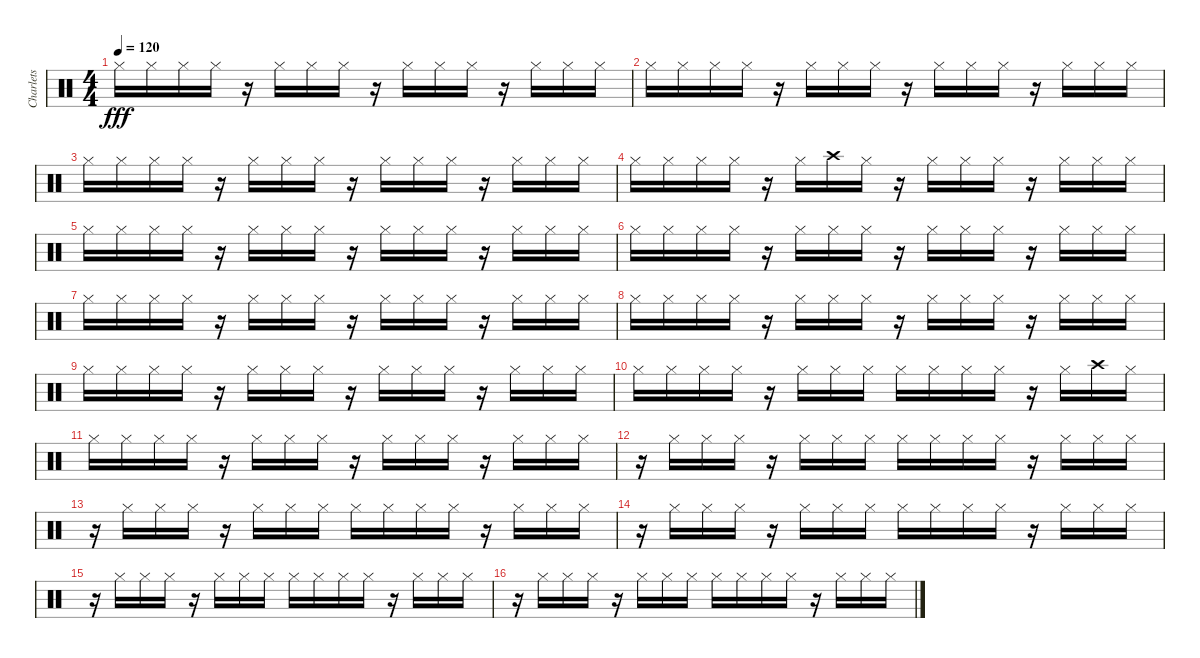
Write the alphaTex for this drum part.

\track ("Charlets" "Charlets") {instrument percussion}
\staff {score}
\articulation defaults
\ts (4 4)
\tempo 120
\clef neutral
\ks c "Hi-Hat (closed)".16{dy fff} "Hi-Hat (closed)".16 "Hi-Hat (closed)".16 "Hi-Hat (closed)".16
r.16 "Hi-Hat (closed)".16 "Hi-Hat (closed)".16 "Hi-Hat (closed)".16 r.16 "Hi-Hat (closed)".16 "Hi-Hat (closed)".16 "Hi-Hat (closed)".16 r.16 "Hi-Hat (closed)".16 "Hi-Hat (closed)".16 "Hi-Hat (closed)".16 |
"Hi-Hat (closed)".16 "Hi-Hat (closed)".16 "Hi-Hat (closed)".16 "Hi-Hat (closed)".16 r.16 "Hi-Hat (closed)".16 "Hi-Hat (closed)".16 "Hi-Hat (closed)".16 r.16 "Hi-Hat (closed)".16 "Hi-Hat (closed)".16 "Hi-Hat (closed)".16 r.16 "Hi-Hat (closed)".16 "Hi-Hat (closed)".16 "Hi-Hat (closed)".16 |
"Hi-Hat (closed)".16 "Hi-Hat (closed)".16 "Hi-Hat (closed)".16 "Hi-Hat (closed)".16 r.16 "Hi-Hat (closed)".16 "Hi-Hat (closed)".16 "Hi-Hat (closed)".16 r.16 "Hi-Hat (closed)".16 "Hi-Hat (closed)".16 "Hi-Hat (closed)".16 r.16 "Hi-Hat (closed)".16 "Hi-Hat (closed)".16 "Hi-Hat (closed)".16 |
"Hi-Hat (closed)".16 "Hi-Hat (closed)".16 "Hi-Hat (closed)".16 "Hi-Hat (closed)".16 r.16 "Hi-Hat (closed)".16 "Crash high (hit)".16 "Hi-Hat (closed)".16 r.16 "Hi-Hat (closed)".16 "Hi-Hat (closed)".16 "Hi-Hat (closed)".16 r.16 "Hi-Hat (closed)".16 "Hi-Hat (closed)".16 "Hi-Hat (closed)".16 |
"Hi-Hat (closed)".16 "Hi-Hat (closed)".16 "Hi-Hat (closed)".16 "Hi-Hat (closed)".16 r.16 "Hi-Hat (closed)".16 "Hi-Hat (closed)".16 "Hi-Hat (closed)".16 r.16 "Hi-Hat (closed)".16 "Hi-Hat (closed)".16 "Hi-Hat (closed)".16 r.16 "Hi-Hat (closed)".16 "Hi-Hat (closed)".16 "Hi-Hat (closed)".16 |
"Hi-Hat (closed)".16 "Hi-Hat (closed)".16 "Hi-Hat (closed)".16 "Hi-Hat (closed)".16 r.16 "Hi-Hat (closed)".16 "Hi-Hat (closed)".16 "Hi-Hat (closed)".16 r.16 "Hi-Hat (closed)".16 "Hi-Hat (closed)".16 "Hi-Hat (closed)".16 r.16 "Hi-Hat (closed)".16 "Hi-Hat (closed)".16 "Hi-Hat (closed)".16 |
"Hi-Hat (closed)".16 "Hi-Hat (closed)".16 "Hi-Hat (closed)".16 "Hi-Hat (closed)".16 r.16 "Hi-Hat (closed)".16 "Hi-Hat (closed)".16 "Hi-Hat (closed)".16 r.16 "Hi-Hat (closed)".16 "Hi-Hat (closed)".16 "Hi-Hat (closed)".16 r.16 "Hi-Hat (closed)".16 "Hi-Hat (closed)".16 "Hi-Hat (closed)".16 |
"Hi-Hat (closed)".16 "Hi-Hat (closed)".16 "Hi-Hat (closed)".16 "Hi-Hat (closed)".16 r.16 "Hi-Hat (closed)".16 "Hi-Hat (closed)".16 "Hi-Hat (closed)".16 r.16 "Hi-Hat (closed)".16 "Hi-Hat (closed)".16 "Hi-Hat (closed)".16 r.16 "Hi-Hat (closed)".16 "Hi-Hat (closed)".16 "Hi-Hat (closed)".16 |
"Hi-Hat (closed)".16 "Hi-Hat (closed)".16 "Hi-Hat (closed)".16 "Hi-Hat (closed)".16 r.16 "Hi-Hat (closed)".16 "Hi-Hat (closed)".16 "Hi-Hat (closed)".16 r.16 "Hi-Hat (closed)".16 "Hi-Hat (closed)".16 "Hi-Hat (closed)".16 r.16 "Hi-Hat (closed)".16 "Hi-Hat (closed)".16 "Hi-Hat (closed)".16 |
"Hi-Hat (closed)".16 "Hi-Hat (closed)".16 "Hi-Hat (closed)".16 "Hi-Hat (closed)".16 r.16 "Hi-Hat (closed)".16 "Hi-Hat (closed)".16 "Hi-Hat (closed)".16 "Hi-Hat (closed)".16 "Hi-Hat (closed)".16 "Hi-Hat (closed)".16 "Hi-Hat (closed)".16 r.16 "Hi-Hat (closed)".16 "Crash high (hit)".16 "Hi-Hat (closed)".16 |
"Hi-Hat (closed)".16 "Hi-Hat (closed)".16 "Hi-Hat (closed)".16 "Hi-Hat (closed)".16 r.16 "Hi-Hat (closed)".16 "Hi-Hat (closed)".16 "Hi-Hat (closed)".16 r.16 "Hi-Hat (closed)".16 "Hi-Hat (closed)".16 "Hi-Hat (closed)".16 r.16 "Hi-Hat (closed)".16 "Hi-Hat (closed)".16 "Hi-Hat (closed)".16 |
r.16 "Hi-Hat (closed)".16 "Hi-Hat (closed)".16 "Hi-Hat (closed)".16 r.16 "Hi-Hat (closed)".16 "Hi-Hat (closed)".16 "Hi-Hat (closed)".16 "Hi-Hat (closed)".16 "Hi-Hat (closed)".16 "Hi-Hat (closed)".16 "Hi-Hat (closed)".16 r.16 "Hi-Hat (closed)".16 "Hi-Hat (closed)".16 "Hi-Hat (closed)".16 |
r.16 "Hi-Hat (closed)".16 "Hi-Hat (closed)".16 "Hi-Hat (closed)".16 r.16 "Hi-Hat (closed)".16 "Hi-Hat (closed)".16 "Hi-Hat (closed)".16 "Hi-Hat (closed)".16 "Hi-Hat (closed)".16 "Hi-Hat (closed)".16 "Hi-Hat (closed)".16 r.16 "Hi-Hat (closed)".16 "Hi-Hat (closed)".16 "Hi-Hat (closed)".16 |
r.16 "Hi-Hat (closed)".16 "Hi-Hat (closed)".16 "Hi-Hat (closed)".16 r.16 "Hi-Hat (closed)".16 "Hi-Hat (closed)".16 "Hi-Hat (closed)".16 "Hi-Hat (closed)".16 "Hi-Hat (closed)".16 "Hi-Hat (closed)".16 "Hi-Hat (closed)".16 r.16 "Hi-Hat (closed)".16 "Hi-Hat (closed)".16 "Hi-Hat (closed)".16 |
r.16 "Hi-Hat (closed)".16 "Hi-Hat (closed)".16 "Hi-Hat (closed)".16 r.16 "Hi-Hat (closed)".16 "Hi-Hat (closed)".16 "Hi-Hat (closed)".16 "Hi-Hat (closed)".16 "Hi-Hat (closed)".16 "Hi-Hat (closed)".16 "Hi-Hat (closed)".16 r.16 "Hi-Hat (closed)".16 "Hi-Hat (closed)".16 "Hi-Hat (closed)".16 |
r.16 "Hi-Hat (closed)".16 "Hi-Hat (closed)".16 "Hi-Hat (closed)".16 r.16 "Hi-Hat (closed)".16 "Hi-Hat (closed)".16 "Hi-Hat (closed)".16 "Hi-Hat (closed)".16 "Hi-Hat (closed)".16 "Hi-Hat (closed)".16 "Hi-Hat (closed)".16 r.16 "Hi-Hat (closed)".16 "Hi-Hat (closed)".16 "Hi-Hat (closed)".16
